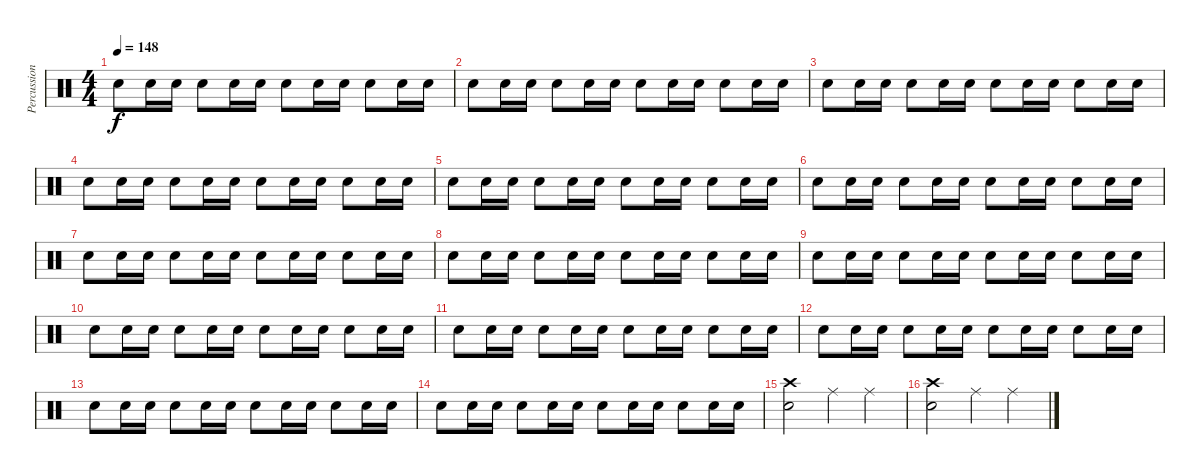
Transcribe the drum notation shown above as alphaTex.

\track ("Percussions" "Percussion") {instrument percussion}
\staff {score}
\articulation defaults
\ts (4 4)
\tempo 148
\clef neutral
\ks c "Snare (hit) 2".8{dy f} "Snare (hit) 2".16 "Snare (hit) 2".16 "Snare (hit) 2".8 "Snare (hit) 2".16 "Snare (hit) 2".16 "Snare (hit) 2".8 "Snare (hit) 2".16 "Snare (hit) 2".16 "Snare (hit) 2".8 "Snare (hit) 2".16 "Snare (hit) 2".16
|
"Snare (hit) 2".8 "Snare (hit) 2".16 "Snare (hit) 2".16 "Snare (hit) 2".8 "Snare (hit) 2".16 "Snare (hit) 2".16 "Snare (hit) 2".8 "Snare (hit) 2".16 "Snare (hit) 2".16 "Snare (hit) 2".8 "Snare (hit) 2".16 "Snare (hit) 2".16 |
"Snare (hit) 2".8 "Snare (hit) 2".16 "Snare (hit) 2".16 "Snare (hit) 2".8 "Snare (hit) 2".16 "Snare (hit) 2".16 "Snare (hit) 2".8 "Snare (hit) 2".16 "Snare (hit) 2".16 "Snare (hit) 2".8 "Snare (hit) 2".16 "Snare (hit) 2".16 |
"Snare (hit) 2".8 "Snare (hit) 2".16 "Snare (hit) 2".16 "Snare (hit) 2".8 "Snare (hit) 2".16 "Snare (hit) 2".16 "Snare (hit) 2".8 "Snare (hit) 2".16 "Snare (hit) 2".16 "Snare (hit) 2".8 "Snare (hit) 2".16 "Snare (hit) 2".16 |
"Snare (hit) 2".8 "Snare (hit) 2".16 "Snare (hit) 2".16 "Snare (hit) 2".8 "Snare (hit) 2".16 "Snare (hit) 2".16 "Snare (hit) 2".8 "Snare (hit) 2".16 "Snare (hit) 2".16 "Snare (hit) 2".8 "Snare (hit) 2".16 "Snare (hit) 2".16 |
"Snare (hit) 2".8 "Snare (hit) 2".16 "Snare (hit) 2".16 "Snare (hit) 2".8 "Snare (hit) 2".16 "Snare (hit) 2".16 "Snare (hit) 2".8 "Snare (hit) 2".16 "Snare (hit) 2".16 "Snare (hit) 2".8 "Snare (hit) 2".16 "Snare (hit) 2".16 |
"Snare (hit) 2".8 "Snare (hit) 2".16 "Snare (hit) 2".16 "Snare (hit) 2".8 "Snare (hit) 2".16 "Snare (hit) 2".16 "Snare (hit) 2".8 "Snare (hit) 2".16 "Snare (hit) 2".16 "Snare (hit) 2".8 "Snare (hit) 2".16 "Snare (hit) 2".16 |
"Snare (hit) 2".8 "Snare (hit) 2".16 "Snare (hit) 2".16 "Snare (hit) 2".8 "Snare (hit) 2".16 "Snare (hit) 2".16 "Snare (hit) 2".8 "Snare (hit) 2".16 "Snare (hit) 2".16 "Snare (hit) 2".8 "Snare (hit) 2".16 "Snare (hit) 2".16 |
"Snare (hit) 2".8 "Snare (hit) 2".16 "Snare (hit) 2".16 "Snare (hit) 2".8 "Snare (hit) 2".16 "Snare (hit) 2".16 "Snare (hit) 2".8 "Snare (hit) 2".16 "Snare (hit) 2".16 "Snare (hit) 2".8 "Snare (hit) 2".16 "Snare (hit) 2".16 |
"Snare (hit) 2".8 "Snare (hit) 2".16 "Snare (hit) 2".16 "Snare (hit) 2".8 "Snare (hit) 2".16 "Snare (hit) 2".16 "Snare (hit) 2".8 "Snare (hit) 2".16 "Snare (hit) 2".16 "Snare (hit) 2".8 "Snare (hit) 2".16 "Snare (hit) 2".16 |
"Snare (hit) 2".8 "Snare (hit) 2".16 "Snare (hit) 2".16 "Snare (hit) 2".8 "Snare (hit) 2".16 "Snare (hit) 2".16 "Snare (hit) 2".8 "Snare (hit) 2".16 "Snare (hit) 2".16 "Snare (hit) 2".8 "Snare (hit) 2".16 "Snare (hit) 2".16 |
"Snare (hit) 2".8 "Snare (hit) 2".16 "Snare (hit) 2".16 "Snare (hit) 2".8 "Snare (hit) 2".16 "Snare (hit) 2".16 "Snare (hit) 2".8 "Snare (hit) 2".16 "Snare (hit) 2".16 "Snare (hit) 2".8 "Snare (hit) 2".16 "Snare (hit) 2".16 |
"Snare (hit) 2".8 "Snare (hit) 2".16 "Snare (hit) 2".16 "Snare (hit) 2".8 "Snare (hit) 2".16 "Snare (hit) 2".16 "Snare (hit) 2".8 "Snare (hit) 2".16 "Snare (hit) 2".16 "Snare (hit) 2".8 "Snare (hit) 2".16 "Snare (hit) 2".16 |
"Snare (hit) 2".8 "Snare (hit) 2".16 "Snare (hit) 2".16 "Snare (hit) 2".8 "Snare (hit) 2".16 "Snare (hit) 2".16 "Snare (hit) 2".8 "Snare (hit) 2".16 "Snare (hit) 2".16 "Snare (hit) 2".8 "Snare (hit) 2".16 "Snare (hit) 2".16 |
("Snare (hit) 2" "Crash high (hit)").2{volume 10} "Ride (middle)".4 "Ride (middle)".4 |
("Snare (hit) 2" "Crash high (hit)").2 "Ride (middle)".4 "Ride (middle)".4
